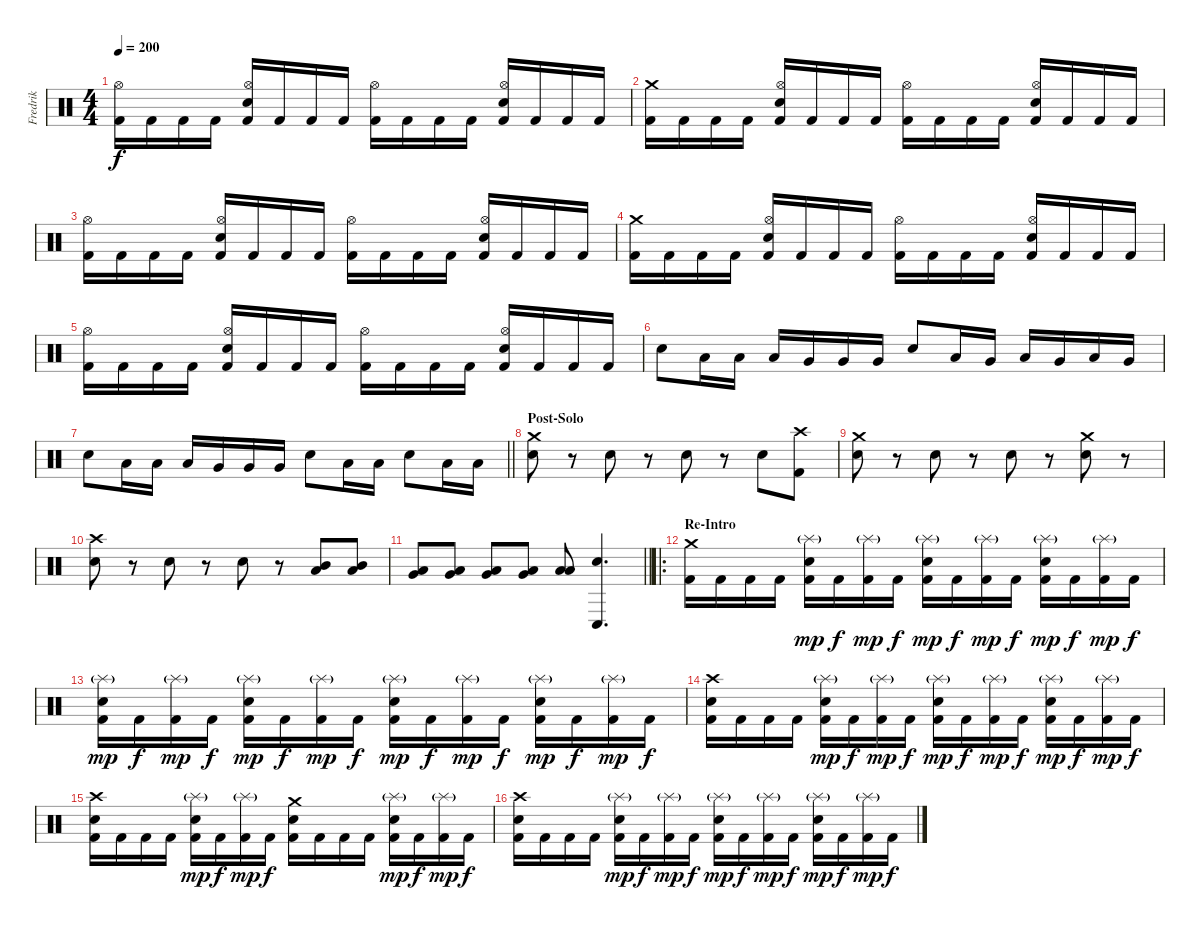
\track ("Fredrik" "Fredrik") {instrument percussion}
\staff {score}
\articulation defaults
\ts (4 4)
\tempo 200
\clef neutral
\ks c
("Kick (hit) 2" "Hi-Hat (open)").16{dy f} "Kick (hit) 2".16 "Kick (hit) 2".16 "Kick (hit) 2".16 ("Kick (hit) 2" "Snare (hit) 2" "Hi-Hat (open)").16 "Kick (hit) 2".16 "Kick (hit) 2".16 "Kick (hit) 2".16 ("Kick (hit) 2" "Hi-Hat (open)").16 "Kick (hit) 2".16 "Kick (hit) 2".16 "Kick (hit) 2".16 ("Kick (hit) 2" "Snare (hit) 2" "Hi-Hat (open)").16 "Kick (hit) 2".16 "Kick (hit) 2".16 "Kick (hit) 2".16 |
("Kick (hit) 2" "Crash medium (hit)").16 "Kick (hit) 2".16 "Kick (hit) 2".16 "Kick (hit) 2".16 ("Kick (hit) 2" "Snare (hit) 2" "Hi-Hat (open)").16 "Kick (hit) 2".16 "Kick (hit) 2".16 "Kick (hit) 2".16 ("Kick (hit) 2" "Hi-Hat (open)").16 "Kick (hit) 2".16 "Kick (hit) 2".16 "Kick (hit) 2".16 ("Kick (hit) 2" "Snare (hit) 2" "Hi-Hat (open)").16 "Kick (hit) 2".16 "Kick (hit) 2".16 "Kick (hit) 2".16 |
("Kick (hit) 2" "Hi-Hat (open)").16 "Kick (hit) 2".16 "Kick (hit) 2".16 "Kick (hit) 2".16 ("Kick (hit) 2" "Snare (hit) 2" "Hi-Hat (open)").16 "Kick (hit) 2".16 "Kick (hit) 2".16 "Kick (hit) 2".16 ("Kick (hit) 2" "Hi-Hat (open)").16 "Kick (hit) 2".16 "Kick (hit) 2".16 "Kick (hit) 2".16 ("Kick (hit) 2" "Snare (hit) 2" "Hi-Hat (open)").16 "Kick (hit) 2".16 "Kick (hit) 2".16 "Kick (hit) 2".16 |
("Kick (hit) 2" "Crash medium (hit)").16 "Kick (hit) 2".16 "Kick (hit) 2".16 "Kick (hit) 2".16 ("Kick (hit) 2" "Snare (hit) 2" "Hi-Hat (open)").16 "Kick (hit) 2".16 "Kick (hit) 2".16 "Kick (hit) 2".16 ("Kick (hit) 2" "Hi-Hat (open)").16 "Kick (hit) 2".16 "Kick (hit) 2".16 "Kick (hit) 2".16 ("Kick (hit) 2" "Snare (hit) 2" "Hi-Hat (open)").16 "Kick (hit) 2".16 "Kick (hit) 2".16 "Kick (hit) 2".16 |
("Kick (hit) 2" "Hi-Hat (open)").16 "Kick (hit) 2".16 "Kick (hit) 2".16 "Kick (hit) 2".16 ("Kick (hit) 2" "Snare (hit) 2" "Hi-Hat (open)").16 "Kick (hit) 2".16 "Kick (hit) 2".16 "Kick (hit) 2".16 ("Kick (hit) 2" "Hi-Hat (open)").16 "Kick (hit) 2".16 "Kick (hit) 2".16 "Kick (hit) 2".16 ("Kick (hit) 2" "Snare (hit) 2" "Hi-Hat (open)").16 "Kick (hit) 2".16 "Kick (hit) 2".16 "Kick (hit) 2".16 |
"Snare (hit) 2".8 "Low Tom (hit)".16 "Low Tom (hit)".16 "Low Tom (hit)".16 "Very Low Tom (hit)".16 "Very Low Tom (hit)".16 "Very Low Tom (hit)".16 "Snare (hit) 2".8 "Low Floor Tom (hit)".16 "Very Low Tom (hit)".16 "Low Floor Tom (hit)".16 "Very Low Tom (hit)".16 "Low Floor Tom (hit)".16 "Very Low Tom (hit)".16 |
\barLineRight lightlight "Snare (hit) 2".8 "Low Tom (hit)".16 "Low Tom (hit)".16 "Low Tom (hit)".16 "Very Low Tom (hit)".16 "Very Low Tom (hit)".16 "Very Low Tom (hit)".16 "Snare (hit) 2".8 "Low Floor Tom (hit)".16 "Low Floor Tom (hit)".16 "Snare (hit) 2".8 "Low Floor Tom (hit)".16 "Low Floor Tom (hit)".16
|
\section ("" "Post-Solo")
("Snare (hit) 2" "Crash medium (hit)").8 r.8 "Snare (hit) 2".8 r.8 "Snare (hit) 2".8 r.8 "Snare (hit) 2".8 ("Kick (hit) 2" "Crash high (hit)").8 |
("Snare (hit) 2" "Crash medium (hit)").8 r.8 "Snare (hit) 2".8 r.8 "Snare (hit) 2".8 r.8 ("Snare (hit) 2" "Crash medium (hit)").8 r.8 |
("Snare (hit) 2" "Crash high (hit)").8 r.8 "Snare (hit) 2".8 r.8 "Snare (hit) 2".8 r.8 ("Mid Tom (hit)" "Low Tom (hit)").8 ("Mid Tom (hit)" "Low Tom (hit)").8 |
\barLineRight lightlight
("Low Tom (hit)" "Very Low Tom (hit)").8 ("Low Tom (hit)" "Very Low Tom (hit)").8 ("Very Low Tom (hit)" "Low Floor Tom (hit)").8 ("Very Low Tom (hit)" "Low Floor Tom (hit)").8 ("Low Floor Tom (hit)" "Low Floor Tom (hit)").8 ("Snare (hit) 2" "Conga low (hit)").4{d} |
\ro
\section ("" "Re-Intro")
("Kick (hit) 2" "Crash medium (hit)").16 "Kick (hit) 2".16 "Kick (hit) 2".16 "Kick (hit) 2".16 ("Kick (hit) 2" "Snare (hit) 2" "Splash (hit)"{g}).16{dy mp} "Kick (hit) 2".16{dy f} ("Kick (hit) 2" "Splash (hit)"{g}).16{dy mp} "Kick (hit) 2".16{dy f} ("Kick (hit) 2" "Snare (hit) 2" "Splash (hit)"{g}).16{dy mp} "Kick (hit) 2".16{dy f} ("Kick (hit) 2" "Splash (hit)"{g}).16{dy mp} "Kick (hit) 2".16{dy f} ("Kick (hit) 2" "Snare (hit) 2" "Splash (hit)"{g}).16{dy mp} "Kick (hit) 2".16{dy f} ("Kick (hit) 2" "Splash (hit)"{g}).16{dy mp} "Kick (hit) 2".16{dy f} |
("Kick (hit) 2" "Snare (hit) 2" "Splash (hit)"{g}).16{dy mp} "Kick (hit) 2".16{dy f} ("Kick (hit) 2" "Splash (hit)"{g}).16{dy mp} "Kick (hit) 2".16{dy f} ("Kick (hit) 2" "Snare (hit) 2" "Splash (hit)"{g}).16{dy mp} "Kick (hit) 2".16{dy f} ("Kick (hit) 2" "Splash (hit)"{g}).16{dy mp} "Kick (hit) 2".16{dy f} ("Kick (hit) 2" "Snare (hit) 2" "Splash (hit)"{g}).16{dy mp} "Kick (hit) 2".16{dy f} ("Kick (hit) 2" "Splash (hit)"{g}).16{dy mp} "Kick (hit) 2".16{dy f} ("Kick (hit) 2" "Snare (hit) 2" "Splash (hit)"{g}).16{dy mp} "Kick (hit) 2".16{dy f} ("Kick (hit) 2" "Splash (hit)"{g}).16{dy mp} "Kick (hit) 2".16{dy f} |
("Kick (hit) 2" "Snare (hit) 2" "Crash high (hit)").16 "Kick (hit) 2".16 "Kick (hit) 2".16 "Kick (hit) 2".16 ("Kick (hit) 2" "Snare (hit) 2" "Splash (hit)"{g}).16{dy mp} "Kick (hit) 2".16{dy f} ("Kick (hit) 2" "Splash (hit)"{g}).16{dy mp} "Kick (hit) 2".16{dy f} ("Kick (hit) 2" "Snare (hit) 2" "Splash (hit)"{g}).16{dy mp} "Kick (hit) 2".16{dy f} ("Kick (hit) 2" "Splash (hit)"{g}).16{dy mp} "Kick (hit) 2".16{dy f} ("Kick (hit) 2" "Snare (hit) 2" "Splash (hit)"{g}).16{dy mp} "Kick (hit) 2".16{dy f} ("Kick (hit) 2" "Splash (hit)"{g}).16{dy mp} "Kick (hit) 2".16{dy f} |
("Kick (hit) 2" "Snare (hit) 2" "Crash high (hit)").16 "Kick (hit) 2".16 "Kick (hit) 2".16 "Kick (hit) 2".16 ("Kick (hit) 2" "Snare (hit) 2" "Splash (hit)"{g}).16{dy mp} "Kick (hit) 2".16{dy f} ("Kick (hit) 2" "Splash (hit)"{g}).16{dy mp} "Kick (hit) 2".16{dy f} ("Kick (hit) 2" "Snare (hit) 2" "Crash medium (hit)").16 "Kick (hit) 2".16 "Kick (hit) 2".16 "Kick (hit) 2".16 ("Kick (hit) 2" "Snare (hit) 2" "Splash (hit)"{g}).16{dy mp} "Kick (hit) 2".16{dy f} ("Kick (hit) 2" "Splash (hit)"{g}).16{dy mp} "Kick (hit) 2".16{dy f} |
("Kick (hit) 2" "Snare (hit) 2" "Crash high (hit)").16 "Kick (hit) 2".16 "Kick (hit) 2".16 "Kick (hit) 2".16 ("Kick (hit) 2" "Snare (hit) 2" "Splash (hit)"{g}).16{dy mp} "Kick (hit) 2".16{dy f} ("Kick (hit) 2" "Splash (hit)"{g}).16{dy mp} "Kick (hit) 2".16{dy f} ("Kick (hit) 2" "Snare (hit) 2" "Splash (hit)"{g}).16{dy mp} "Kick (hit) 2".16{dy f} ("Kick (hit) 2" "Splash (hit)"{g}).16{dy mp} "Kick (hit) 2".16{dy f} ("Kick (hit) 2" "Snare (hit) 2" "Splash (hit)"{g}).16{dy mp} "Kick (hit) 2".16{dy f} ("Kick (hit) 2" "Splash (hit)"{g}).16{dy mp} "Kick (hit) 2".16{dy f}
